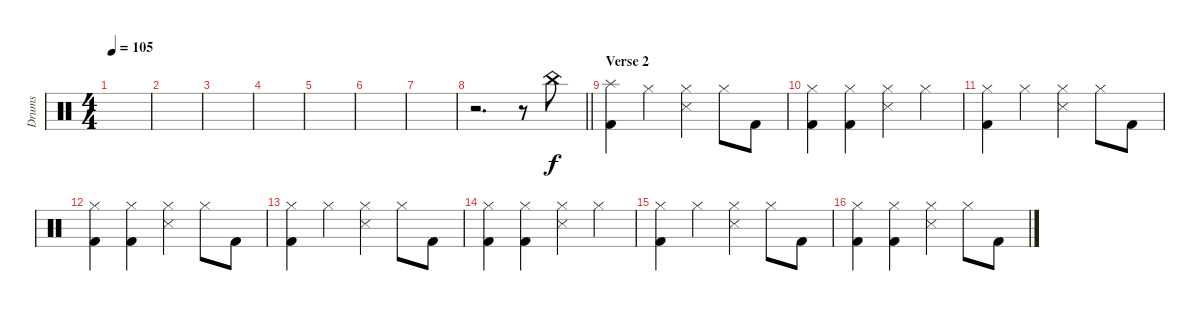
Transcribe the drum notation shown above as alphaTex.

\track ("Drums" "Drums") {instrument percussion}
\staff {score}
\articulation defaults
\ts (4 4)
\tempo 105
\clef neutral
\ks c
|
|
|
|
|
|
|
\barLineRight lightlight
r.2{d} r.8 "China (hit)".8 |
\section ("" "Verse 2")
("Splash (hit)" "Kick (hit) 2").4 "Hi-Hat (closed)".4 ("Hi-Hat (closed)" "Snare (side stick) 3").4 "Hi-Hat (closed)".8 "Kick (hit) 2".8 |
("Hi-Hat (closed)" "Kick (hit) 2").4 ("Hi-Hat (closed)" "Kick (hit) 2").4 ("Hi-Hat (closed)" "Snare (side stick) 3").4 "Hi-Hat (closed)".4 |
("Hi-Hat (closed)" "Kick (hit) 2").4 "Hi-Hat (closed)".4 ("Hi-Hat (closed)" "Snare (side stick) 3").4 "Hi-Hat (closed)".8 "Kick (hit) 2".8 |
("Hi-Hat (closed)" "Kick (hit) 2").4 ("Hi-Hat (closed)" "Kick (hit) 2").4 ("Hi-Hat (closed)" "Snare (side stick) 3").4 "Hi-Hat (closed)".8 "Kick (hit) 2".8 |
("Hi-Hat (closed)" "Kick (hit) 2").4 "Hi-Hat (closed)".4 ("Hi-Hat (closed)" "Snare (side stick) 3").4 "Hi-Hat (closed)".8 "Kick (hit) 2".8 |
("Hi-Hat (closed)" "Kick (hit) 2").4 ("Hi-Hat (closed)" "Kick (hit) 2").4 ("Hi-Hat (closed)" "Snare (side stick) 3").4 "Hi-Hat (closed)".4 |
("Hi-Hat (closed)" "Kick (hit) 2").4 "Hi-Hat (closed)".4 ("Hi-Hat (closed)" "Snare (side stick) 3").4 "Hi-Hat (closed)".8 "Kick (hit) 2".8 |
("Hi-Hat (closed)" "Kick (hit) 2").4 ("Hi-Hat (closed)" "Kick (hit) 2").4 ("Hi-Hat (closed)" "Snare (side stick) 3").4 "Hi-Hat (closed)".8 "Kick (hit) 2".8
